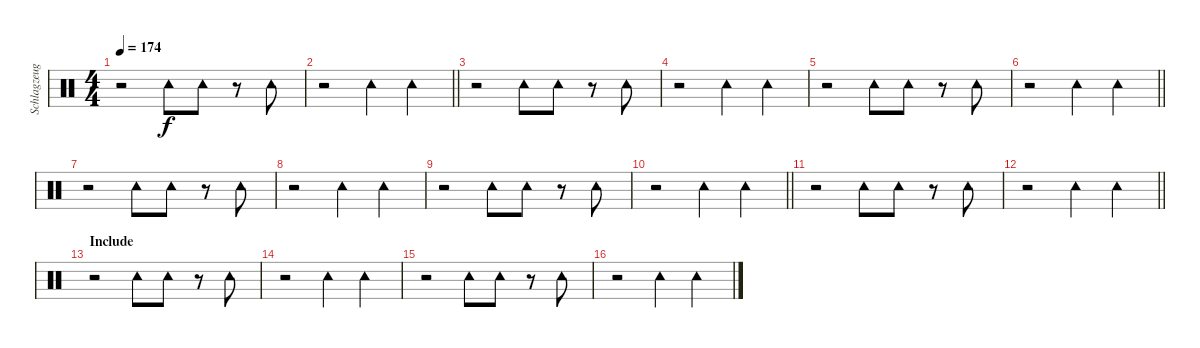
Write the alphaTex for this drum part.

\track ("Schlagzeug" "Schlagzeug") {instrument percussion}
\staff {score}
\articulation defaults
\ts (4 4)
\tempo 174
\clef neutral
\ks c
r.2{dy f} "Tambourine (hit)".8 "Tambourine (hit)".8 r.8 "Tambourine (hit)".8 |
\barLineRight lightlight
r.2 "Tambourine (hit)".4 "Tambourine (hit)".4 |
r.2 "Tambourine (hit)".8 "Tambourine (hit)".8 r.8 "Tambourine (hit)".8 |
r.2 "Tambourine (hit)".4 "Tambourine (hit)".4 |
r.2 "Tambourine (hit)".8 "Tambourine (hit)".8 r.8 "Tambourine (hit)".8 |
\barLineRight lightlight
r.2 "Tambourine (hit)".4 "Tambourine (hit)".4 |
r.2 "Tambourine (hit)".8 "Tambourine (hit)".8 r.8 "Tambourine (hit)".8 |
r.2 "Tambourine (hit)".4 "Tambourine (hit)".4 |
r.2 "Tambourine (hit)".8 "Tambourine (hit)".8 r.8 "Tambourine (hit)".8 |
\barLineRight lightlight
r.2 "Tambourine (hit)".4 "Tambourine (hit)".4 |
r.2 "Tambourine (hit)".8 "Tambourine (hit)".8 r.8 "Tambourine (hit)".8 |
\barLineRight lightlight
r.2 "Tambourine (hit)".4 "Tambourine (hit)".4 |
\section ("" "Include")
r.2 "Tambourine (hit)".8 "Tambourine (hit)".8 r.8 "Tambourine (hit)".8 |
r.2 "Tambourine (hit)".4 "Tambourine (hit)".4 |
r.2 "Tambourine (hit)".8 "Tambourine (hit)".8 r.8 "Tambourine (hit)".8 |
r.2 "Tambourine (hit)".4 "Tambourine (hit)".4
